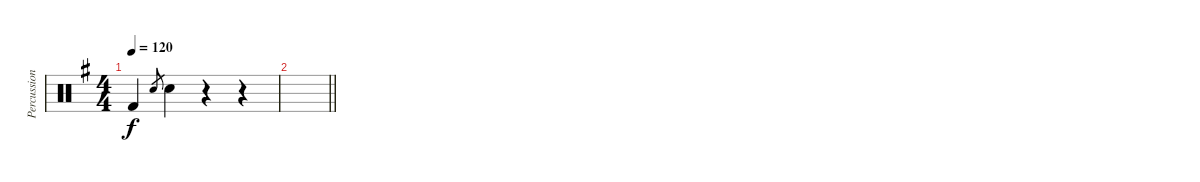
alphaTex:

\track ("Percussion" "Percussion") {instrument percussion}
\staff {score}
\articulation defaults
\ts (4 4)
\tempo 120
\clef neutral
\ks eminor "Kick (hit) 2".4{dy f} "Snare (hit) 2".8{gr} "Snare (hit) 2".4
r.4 r.4 |
\barLineRight lightlight
